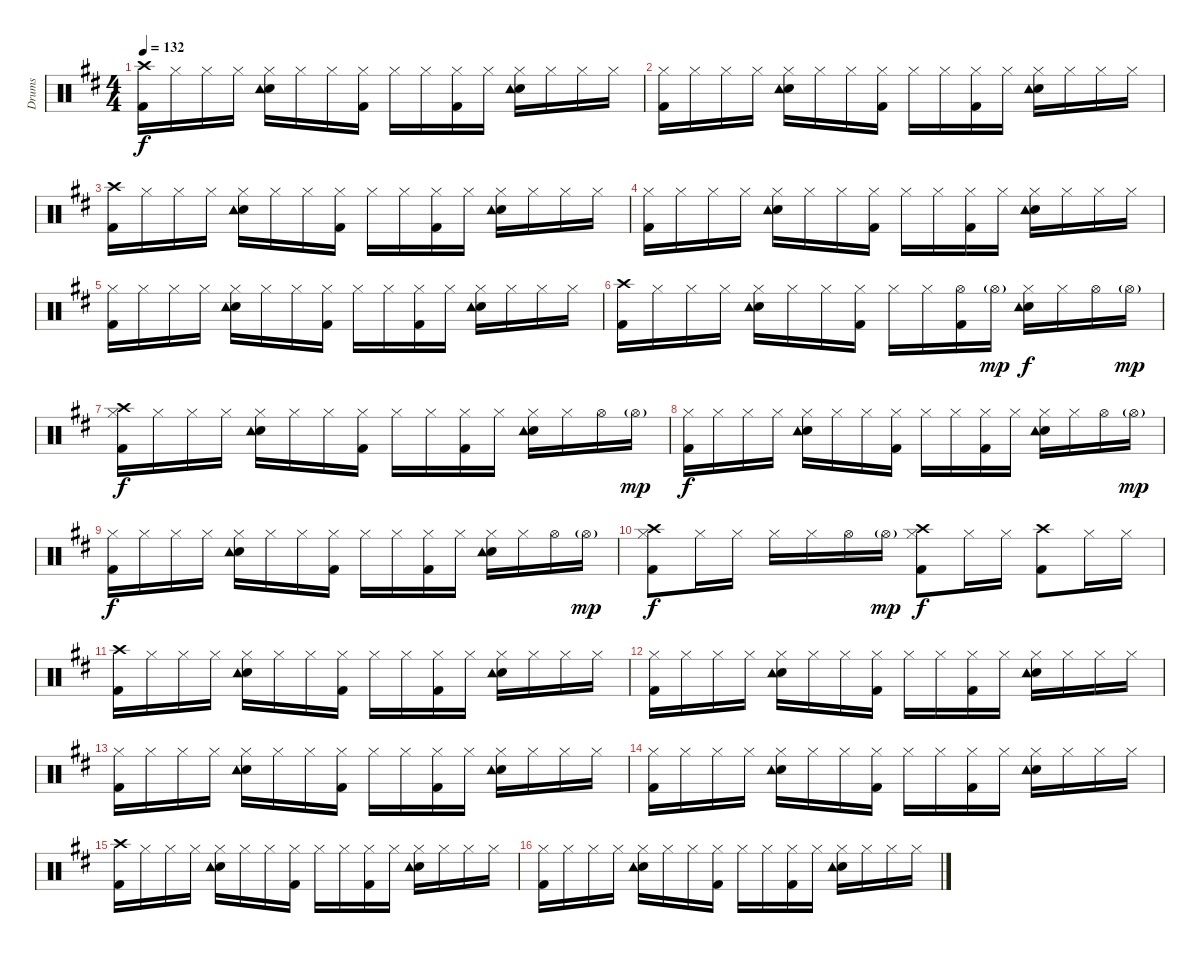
\track ("Drums" "Drums") {instrument percussion}
\staff {score}
\articulation defaults
\ts (4 4)
\tempo 132
\clef neutral
\ks d
("Crash high (hit)" "Kick (hit) 2").16{dy f} "Hi-Hat (closed)".16 "Hi-Hat (closed)".16 "Hi-Hat (closed)".16 ("Hi-Hat (closed)" "Electric Snare (hit)" "Tambourine (hit)").16 "Hi-Hat (closed)".16 "Hi-Hat (closed)".16 ("Hi-Hat (closed)" "Kick (hit) 2").16 "Hi-Hat (closed)".16 "Hi-Hat (closed)".16 ("Hi-Hat (closed)" "Kick (hit) 2").16 "Hi-Hat (closed)".16 ("Hi-Hat (closed)" "Electric Snare (hit)" "Tambourine (hit)").16 "Hi-Hat (closed)".16 "Hi-Hat (closed)".16 "Hi-Hat (closed)".16 |
("Hi-Hat (closed)" "Kick (hit) 2").16 "Hi-Hat (closed)".16 "Hi-Hat (closed)".16 "Hi-Hat (closed)".16 ("Hi-Hat (closed)" "Electric Snare (hit)" "Tambourine (hit)").16 "Hi-Hat (closed)".16 "Hi-Hat (closed)".16 ("Hi-Hat (closed)" "Kick (hit) 2").16 "Hi-Hat (closed)".16 "Hi-Hat (closed)".16 ("Hi-Hat (closed)" "Kick (hit) 2").16 "Hi-Hat (closed)".16 ("Hi-Hat (closed)" "Electric Snare (hit)" "Tambourine (hit)").16 "Hi-Hat (closed)".16 "Hi-Hat (closed)".16 "Hi-Hat (closed)".16 |
("Crash high (hit)" "Kick (hit) 2").16 "Hi-Hat (closed)".16 "Hi-Hat (closed)".16 "Hi-Hat (closed)".16 ("Hi-Hat (closed)" "Electric Snare (hit)" "Tambourine (hit)").16 "Hi-Hat (closed)".16 "Hi-Hat (closed)".16 ("Hi-Hat (closed)" "Kick (hit) 2").16 "Hi-Hat (closed)".16 "Hi-Hat (closed)".16 ("Hi-Hat (closed)" "Kick (hit) 2").16 "Hi-Hat (closed)".16 ("Hi-Hat (closed)" "Electric Snare (hit)" "Tambourine (hit)").16 "Hi-Hat (closed)".16 "Hi-Hat (closed)".16 "Hi-Hat (closed)".16 |
("Hi-Hat (closed)" "Kick (hit) 2").16 "Hi-Hat (closed)".16 "Hi-Hat (closed)".16 "Hi-Hat (closed)".16 ("Hi-Hat (closed)" "Electric Snare (hit)" "Tambourine (hit)").16 "Hi-Hat (closed)".16 "Hi-Hat (closed)".16 ("Hi-Hat (closed)" "Kick (hit) 2").16 "Hi-Hat (closed)".16 "Hi-Hat (closed)".16 ("Hi-Hat (closed)" "Kick (hit) 2").16 "Hi-Hat (closed)".16 ("Hi-Hat (closed)" "Electric Snare (hit)" "Tambourine (hit)").16 "Hi-Hat (closed)".16 "Hi-Hat (closed)".16 "Hi-Hat (closed)".16 |
("Hi-Hat (closed)" "Kick (hit) 2").16 "Hi-Hat (closed)".16 "Hi-Hat (closed)".16 "Hi-Hat (closed)".16 ("Hi-Hat (closed)" "Electric Snare (hit)" "Tambourine (hit)").16 "Hi-Hat (closed)".16 "Hi-Hat (closed)".16 ("Hi-Hat (closed)" "Kick (hit) 2").16 "Hi-Hat (closed)".16 "Hi-Hat (closed)".16 ("Hi-Hat (closed)" "Kick (hit) 2").16 "Hi-Hat (closed)".16 ("Hi-Hat (closed)" "Electric Snare (hit)" "Tambourine (hit)").16 "Hi-Hat (closed)".16 "Hi-Hat (closed)".16 "Hi-Hat (closed)".16 |
("Crash high (hit)" "Kick (hit) 2").16 "Hi-Hat (closed)".16 "Hi-Hat (closed)".16 "Hi-Hat (closed)".16 ("Hi-Hat (closed)" "Electric Snare (hit)" "Tambourine (hit)").16 "Hi-Hat (closed)".16 "Hi-Hat (closed)".16 ("Hi-Hat (closed)" "Kick (hit) 2").16 "Hi-Hat (closed)".16 "Hi-Hat (closed)".16 ("Hi-Hat (open)" "Kick (hit) 2").16 "Hi-Hat (open)"{g}.16{dy mp} ("Hi-Hat (closed)" "Electric Snare (hit)" "Tambourine (hit)").16{dy f} "Hi-Hat (closed)".16 "Hi-Hat (open)".16 "Hi-Hat (open)"{g}.16{dy mp} |
("Crash high (hit)" "Hi-Hat (closed)" "Kick (hit) 2").16{dy f} "Hi-Hat (closed)".16 "Hi-Hat (closed)".16 "Hi-Hat (closed)".16 ("Hi-Hat (closed)" "Electric Snare (hit)" "Tambourine (hit)").16 "Hi-Hat (closed)".16 "Hi-Hat (closed)".16 ("Hi-Hat (closed)" "Kick (hit) 2").16 "Hi-Hat (closed)".16 "Hi-Hat (closed)".16 ("Hi-Hat (closed)" "Kick (hit) 2").16 "Hi-Hat (closed)".16 ("Hi-Hat (closed)" "Electric Snare (hit)" "Tambourine (hit)").16 "Hi-Hat (closed)".16 "Hi-Hat (open)".16 "Hi-Hat (open)"{g}.16{dy mp} |
("Hi-Hat (closed)" "Kick (hit) 2").16{dy f} "Hi-Hat (closed)".16 "Hi-Hat (closed)".16 "Hi-Hat (closed)".16 ("Hi-Hat (closed)" "Electric Snare (hit)" "Tambourine (hit)").16 "Hi-Hat (closed)".16 "Hi-Hat (closed)".16 ("Hi-Hat (closed)" "Kick (hit) 2").16 "Hi-Hat (closed)".16 "Hi-Hat (closed)".16 ("Hi-Hat (closed)" "Kick (hit) 2").16 "Hi-Hat (closed)".16 ("Hi-Hat (closed)" "Electric Snare (hit)" "Tambourine (hit)").16 "Hi-Hat (closed)".16 "Hi-Hat (open)".16 "Hi-Hat (open)"{g}.16{dy mp} |
("Hi-Hat (closed)" "Kick (hit) 2").16{dy f} "Hi-Hat (closed)".16 "Hi-Hat (closed)".16 "Hi-Hat (closed)".16 ("Hi-Hat (closed)" "Electric Snare (hit)" "Tambourine (hit)").16 "Hi-Hat (closed)".16 "Hi-Hat (closed)".16 ("Hi-Hat (closed)" "Kick (hit) 2").16 "Hi-Hat (closed)".16 "Hi-Hat (closed)".16 ("Hi-Hat (closed)" "Kick (hit) 2").16 "Hi-Hat (closed)".16 ("Hi-Hat (closed)" "Electric Snare (hit)" "Tambourine (hit)").16 "Hi-Hat (closed)".16 "Hi-Hat (open)".16 "Hi-Hat (open)"{g}.16{dy mp} |
("Crash high (hit)" "Hi-Hat (closed)" "Kick (hit) 2").8{dy f} "Hi-Hat (closed)".16 "Hi-Hat (closed)".16 "Hi-Hat (closed)".16 "Hi-Hat (closed)".16 "Hi-Hat (open)".16 "Hi-Hat (open)"{g}.16{dy mp} ("Crash high (hit)" "Hi-Hat (closed)" "Kick (hit) 2").8{dy f} "Hi-Hat (closed)".16 "Hi-Hat (closed)".16 ("Crash high (hit)" "Kick (hit) 2").8 "Hi-Hat (closed)".16 "Hi-Hat (closed)".16 |
("Crash high (hit)" "Kick (hit) 2").16 "Hi-Hat (closed)".16 "Hi-Hat (closed)".16 "Hi-Hat (closed)".16 ("Hi-Hat (closed)" "Electric Snare (hit)" "Tambourine (hit)").16 "Hi-Hat (closed)".16 "Hi-Hat (closed)".16 ("Hi-Hat (closed)" "Kick (hit) 2").16 "Hi-Hat (closed)".16 "Hi-Hat (closed)".16 ("Hi-Hat (closed)" "Kick (hit) 2").16 "Hi-Hat (closed)".16 ("Hi-Hat (closed)" "Electric Snare (hit)" "Tambourine (hit)").16 "Hi-Hat (closed)".16 "Hi-Hat (closed)".16 "Hi-Hat (closed)".16 |
("Hi-Hat (closed)" "Kick (hit) 2").16 "Hi-Hat (closed)".16 "Hi-Hat (closed)".16 "Hi-Hat (closed)".16 ("Hi-Hat (closed)" "Electric Snare (hit)" "Tambourine (hit)").16 "Hi-Hat (closed)".16 "Hi-Hat (closed)".16 ("Hi-Hat (closed)" "Kick (hit) 2").16 "Hi-Hat (closed)".16 "Hi-Hat (closed)".16 ("Hi-Hat (closed)" "Kick (hit) 2").16 "Hi-Hat (closed)".16 ("Hi-Hat (closed)" "Electric Snare (hit)" "Tambourine (hit)").16 "Hi-Hat (closed)".16 "Hi-Hat (closed)".16 "Hi-Hat (closed)".16 |
("Hi-Hat (closed)" "Kick (hit) 2").16 "Hi-Hat (closed)".16 "Hi-Hat (closed)".16 "Hi-Hat (closed)".16 ("Hi-Hat (closed)" "Electric Snare (hit)" "Tambourine (hit)").16 "Hi-Hat (closed)".16 "Hi-Hat (closed)".16 ("Hi-Hat (closed)" "Kick (hit) 2").16 "Hi-Hat (closed)".16 "Hi-Hat (closed)".16 ("Hi-Hat (closed)" "Kick (hit) 2").16 "Hi-Hat (closed)".16 ("Hi-Hat (closed)" "Electric Snare (hit)" "Tambourine (hit)").16 "Hi-Hat (closed)".16 "Hi-Hat (closed)".16 "Hi-Hat (closed)".16 |
("Hi-Hat (closed)" "Kick (hit) 2").16 "Hi-Hat (closed)".16 "Hi-Hat (closed)".16 "Hi-Hat (closed)".16 ("Hi-Hat (closed)" "Electric Snare (hit)" "Tambourine (hit)").16 "Hi-Hat (closed)".16 "Hi-Hat (closed)".16 ("Hi-Hat (closed)" "Kick (hit) 2").16 "Hi-Hat (closed)".16 "Hi-Hat (closed)".16 ("Hi-Hat (closed)" "Kick (hit) 2").16 "Hi-Hat (closed)".16 ("Hi-Hat (closed)" "Electric Snare (hit)" "Tambourine (hit)").16 "Hi-Hat (closed)".16 "Hi-Hat (closed)".16 "Hi-Hat (closed)".16 |
("Crash high (hit)" "Kick (hit) 2").16 "Hi-Hat (closed)".16 "Hi-Hat (closed)".16 "Hi-Hat (closed)".16 ("Hi-Hat (closed)" "Electric Snare (hit)" "Tambourine (hit)").16 "Hi-Hat (closed)".16 "Hi-Hat (closed)".16 ("Hi-Hat (closed)" "Kick (hit) 2").16 "Hi-Hat (closed)".16 "Hi-Hat (closed)".16 ("Hi-Hat (closed)" "Kick (hit) 2").16 "Hi-Hat (closed)".16 ("Hi-Hat (closed)" "Electric Snare (hit)" "Tambourine (hit)").16 "Hi-Hat (closed)".16 "Hi-Hat (closed)".16 "Hi-Hat (closed)".16 |
("Hi-Hat (closed)" "Kick (hit) 2").16 "Hi-Hat (closed)".16 "Hi-Hat (closed)".16 "Hi-Hat (closed)".16 ("Hi-Hat (closed)" "Electric Snare (hit)" "Tambourine (hit)").16 "Hi-Hat (closed)".16 "Hi-Hat (closed)".16 ("Hi-Hat (closed)" "Kick (hit) 2").16 "Hi-Hat (closed)".16 "Hi-Hat (closed)".16 ("Hi-Hat (closed)" "Kick (hit) 2").16 "Hi-Hat (closed)".16 ("Hi-Hat (closed)" "Electric Snare (hit)" "Tambourine (hit)").16 "Hi-Hat (closed)".16 "Hi-Hat (closed)".16 "Hi-Hat (closed)".16
